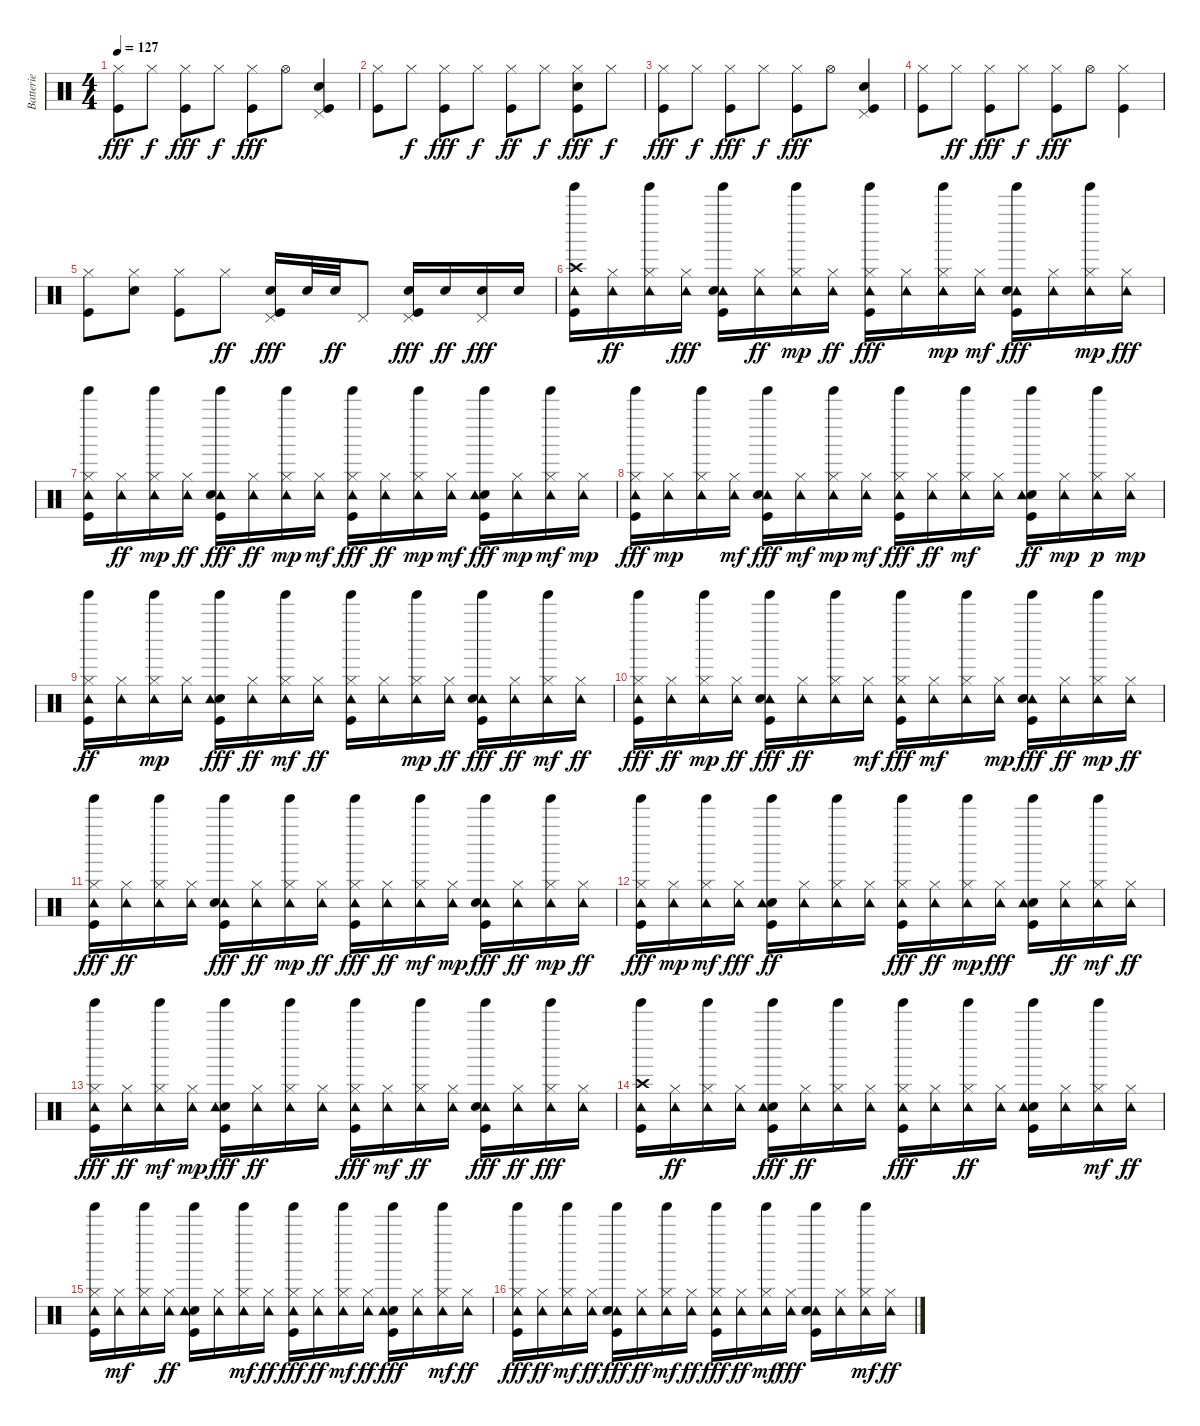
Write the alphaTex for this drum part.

\track ("Batterie" "Batterie") {instrument percussion}
\staff {score}
\articulation defaults
\ts (4 4)
\tempo 127
\clef neutral
\ks c
("Hi-Hat (closed)" "Kick (hit)").8{dy fff} "Hi-Hat (closed)".8{dy f} ("Kick (hit)" "Hi-Hat (closed)").8{dy fff} "Hi-Hat (closed)".8{dy f} ("Hi-Hat (closed)" "Kick (hit)").8{dy fff} "Hi-Hat (open)".8 ("Snare (hit) 2" "Pedal Hi-Hat (hit)" "Kick (hit)").4 |
("Kick (hit)" "Hi-Hat (closed)").8 "Hi-Hat (closed)".8{dy f} ("Kick (hit)" "Hi-Hat (closed)").8{dy fff} "Hi-Hat (closed)".8{dy f} ("Kick (hit)" "Hi-Hat (closed)").8{dy ff} "Hi-Hat (closed)".8{dy f} ("Kick (hit)" "Snare (hit) 2" "Hi-Hat (closed)").8{dy fff} "Hi-Hat (closed)".8{dy f} |
("Kick (hit)" "Hi-Hat (closed)").8{dy fff} "Hi-Hat (closed)".8{dy f} ("Hi-Hat (closed)" "Kick (hit)").8{dy fff} "Hi-Hat (closed)".8{dy f} ("Hi-Hat (closed)" "Kick (hit)").8{dy fff} "Hi-Hat (open)".8 ("Kick (hit)" "Snare (hit) 2" "Pedal Hi-Hat (hit)").4 |
("Kick (hit)" "Hi-Hat (closed)").8 "Hi-Hat (closed)".8{dy ff} ("Kick (hit)" "Hi-Hat (closed)").8{dy fff} "Hi-Hat (closed)".8{dy f} ("Kick (hit)" "Hi-Hat (closed)").8{dy fff} "Hi-Hat (open)".8 ("Hi-Hat (closed)" "Kick (hit)").4 |
("Kick (hit)" "Hi-Hat (closed)").8 ("Snare (hit) 2" "Hi-Hat (closed)").8 ("Hi-Hat (closed)" "Kick (hit)").8 "Hi-Hat (closed)".8{dy ff} ("Pedal Hi-Hat (hit)" "Kick (hit)" "Snare (hit) 2").16{dy fff} "Snare (hit) 2".32 "Snare (hit) 2".32{dy ff} "Pedal Hi-Hat (hit)".8 ("Pedal Hi-Hat (hit)" "Kick (hit)" "Snare (hit) 2").16{dy fff} "Snare (hit) 2".16{dy ff} ("Snare (hit) 2" "Pedal Hi-Hat (hit)").16{dy fff} "Snare (hit) 2".16 |
("Crash high (hit)" "Tinkle Bell (hit)" "Tambourine (hit)" "Kick (hit)").16 ("Tambourine (hit)" "Hi-Hat (closed)").16{dy ff} ("Tinkle Bell (hit)" "Tambourine (hit)" "Hi-Hat (closed)").16 ("Tambourine (hit)" "Hi-Hat (closed)").16{dy fff} ("Tambourine (hit)" "Kick (hit)" "Snare (hit) 2" "Tinkle Bell (hit)").16 ("Tambourine (hit)" "Hi-Hat (closed)").16{dy ff} ("Hi-Hat (closed)" "Tambourine (hit)" "Tinkle Bell (hit)").16{dy mp} ("Tambourine (hit)" "Hi-Hat (closed)").16{dy ff} ("Kick (hit)" "Tambourine (hit)" "Tinkle Bell (hit)" "Hi-Hat (closed)").16{dy fff} ("Tambourine (hit)" "Hi-Hat (closed)").16 ("Hi-Hat (closed)" "Tambourine (hit)" "Tinkle Bell (hit)").16{dy mp} ("Hi-Hat (closed)" "Tambourine (hit)").16{dy mf} ("Tinkle Bell (hit)" "Tambourine (hit)" "Kick (hit)" "Snare (hit) 2").16{dy fff} ("Tambourine (hit)" "Hi-Hat (closed)").16 ("Hi-Hat (closed)" "Tambourine (hit)" "Tinkle Bell (hit)").16{dy mp} ("Tambourine (hit)" "Hi-Hat (closed)").16{dy fff} |
("Tambourine (hit)" "Kick (hit)" "Hi-Hat (closed)" "Tinkle Bell (hit)").16 ("Tambourine (hit)" "Hi-Hat (closed)").16{dy ff} ("Hi-Hat (closed)" "Tambourine (hit)" "Tinkle Bell (hit)").16{dy mp} ("Tambourine (hit)" "Hi-Hat (closed)").16{dy ff} ("Tambourine (hit)" "Tinkle Bell (hit)" "Kick (hit)" "Snare (hit) 2").16{dy fff} ("Tambourine (hit)" "Hi-Hat (closed)").16{dy ff} ("Tinkle Bell (hit)" "Hi-Hat (closed)" "Tambourine (hit)").16{dy mp} ("Hi-Hat (closed)" "Tambourine (hit)").16{dy mf} ("Tinkle Bell (hit)" "Tambourine (hit)" "Kick (hit)" "Hi-Hat (closed)").16{dy fff} ("Tambourine (hit)" "Hi-Hat (closed)").16{dy ff} ("Tinkle Bell (hit)" "Hi-Hat (closed)" "Tambourine (hit)").16{dy mp} ("Hi-Hat (closed)" "Tambourine (hit)").16{dy mf} ("Tinkle Bell (hit)" "Snare (hit) 2" "Kick (hit)" "Tambourine (hit)").16{dy fff} ("Hi-Hat (closed)" "Tambourine (hit)").16{dy mp} ("Hi-Hat (closed)" "Tinkle Bell (hit)" "Tambourine (hit)").16{dy mf} ("Hi-Hat (closed)" "Tambourine (hit)").16{dy mp} |
("Hi-Hat (closed)" "Tinkle Bell (hit)" "Tambourine (hit)" "Kick (hit)").16{dy fff} ("Tambourine (hit)" "Hi-Hat (closed)").16{dy mp} ("Hi-Hat (closed)" "Tinkle Bell (hit)" "Tambourine (hit)").16 ("Hi-Hat (closed)" "Tambourine (hit)").16{dy mf} ("Tinkle Bell (hit)" "Kick (hit)" "Tambourine (hit)" "Snare (hit) 2").16{dy fff} ("Hi-Hat (closed)" "Tambourine (hit)").16{dy mf} ("Tinkle Bell (hit)" "Tambourine (hit)" "Hi-Hat (closed)").16{dy mp} ("Hi-Hat (closed)" "Tambourine (hit)").16{dy mf} ("Tinkle Bell (hit)" "Kick (hit)" "Hi-Hat (closed)" "Tambourine (hit)").16{dy fff} ("Tambourine (hit)" "Hi-Hat (closed)").16{dy ff} ("Tinkle Bell (hit)" "Hi-Hat (closed)" "Tambourine (hit)").16{dy mf} ("Hi-Hat (closed)" "Tambourine (hit)").16 ("Tinkle Bell (hit)" "Kick (hit)" "Snare (hit) 2" "Tambourine (hit)").16{dy ff} ("Hi-Hat (closed)" "Tambourine (hit)").16{dy mp} ("Tinkle Bell (hit)" "Hi-Hat (closed)" "Tambourine (hit)").16{dy p} ("Hi-Hat (closed)" "Tambourine (hit)").16{dy mp} |
("Kick (hit)" "Hi-Hat (closed)" "Tambourine (hit)" "Tinkle Bell (hit)").16{dy ff} ("Tambourine (hit)" "Hi-Hat (closed)").16 ("Hi-Hat (closed)" "Tambourine (hit)" "Tinkle Bell (hit)").16{dy mp} ("Hi-Hat (closed)" "Tambourine (hit)").16 ("Tinkle Bell (hit)" "Snare (hit) 2" "Tambourine (hit)" "Kick (hit)").16{dy fff} ("Tambourine (hit)" "Hi-Hat (closed)").16{dy ff} ("Tinkle Bell (hit)" "Tambourine (hit)" "Hi-Hat (closed)").16{dy mf} ("Tambourine (hit)" "Hi-Hat (closed)").16{dy ff} ("Tinkle Bell (hit)" "Hi-Hat (closed)" "Kick (hit)" "Tambourine (hit)").16 ("Tambourine (hit)" "Hi-Hat (closed)").16 ("Tinkle Bell (hit)" "Hi-Hat (closed)" "Tambourine (hit)").16{dy mp} ("Tambourine (hit)" "Hi-Hat (closed)").16{dy ff} ("Tinkle Bell (hit)" "Tambourine (hit)" "Kick (hit)" "Snare (hit) 2").16{dy fff} ("Tambourine (hit)" "Hi-Hat (closed)").16{dy ff} ("Tinkle Bell (hit)" "Tambourine (hit)" "Hi-Hat (closed)").16{dy mf} ("Tambourine (hit)" "Hi-Hat (closed)").16{dy ff} |
("Tinkle Bell (hit)" "Hi-Hat (closed)" "Tambourine (hit)" "Kick (hit)").16{dy fff} ("Tambourine (hit)" "Hi-Hat (closed)").16{dy ff} ("Tambourine (hit)" "Tinkle Bell (hit)" "Hi-Hat (closed)").16{dy mp} ("Tambourine (hit)" "Hi-Hat (closed)").16{dy ff} ("Tinkle Bell (hit)" "Kick (hit)" "Tambourine (hit)" "Snare (hit) 2").16{dy fff} ("Tambourine (hit)" "Hi-Hat (closed)").16{dy ff} ("Tinkle Bell (hit)" "Tambourine (hit)" "Hi-Hat (closed)").16 ("Tambourine (hit)" "Hi-Hat (closed)").16{dy mf} ("Tinkle Bell (hit)" "Hi-Hat (closed)" "Tambourine (hit)" "Kick (hit)").16{dy fff} ("Tambourine (hit)" "Hi-Hat (closed)").16{dy mf} ("Tinkle Bell (hit)" "Hi-Hat (closed)" "Tambourine (hit)").16 ("Tambourine (hit)" "Hi-Hat (closed)").16{dy mp} ("Tinkle Bell (hit)" "Kick (hit)" "Tambourine (hit)" "Snare (hit) 2").16{dy fff} ("Tambourine (hit)" "Hi-Hat (closed)").16{dy ff} ("Tinkle Bell (hit)" "Tambourine (hit)" "Hi-Hat (closed)").16{dy mp} ("Tambourine (hit)" "Hi-Hat (closed)").16{dy ff} |
("Tinkle Bell (hit)" "Kick (hit)" "Tambourine (hit)" "Hi-Hat (closed)").16{dy fff} ("Tambourine (hit)" "Hi-Hat (closed)").16{dy ff} ("Tinkle Bell (hit)" "Tambourine (hit)" "Hi-Hat (closed)").16 ("Tambourine (hit)" "Hi-Hat (closed)").16 ("Tinkle Bell (hit)" "Kick (hit)" "Tambourine (hit)" "Snare (hit) 2").16{dy fff} ("Tambourine (hit)" "Hi-Hat (closed)").16{dy ff} ("Tinkle Bell (hit)" "Hi-Hat (closed)" "Tambourine (hit)").16{dy mp} ("Tambourine (hit)" "Hi-Hat (closed)").16{dy ff} ("Hi-Hat (closed)" "Tambourine (hit)" "Tinkle Bell (hit)" "Kick (hit)").16{dy fff} ("Tambourine (hit)" "Hi-Hat (closed)").16{dy ff} ("Hi-Hat (closed)" "Tambourine (hit)" "Tinkle Bell (hit)").16{dy mf} ("Hi-Hat (closed)" "Tambourine (hit)").16{dy mp} ("Tambourine (hit)" "Tinkle Bell (hit)" "Kick (hit)" "Snare (hit) 2").16{dy fff} ("Tambourine (hit)" "Hi-Hat (closed)").16{dy ff} ("Tinkle Bell (hit)" "Tambourine (hit)" "Hi-Hat (closed)").16{dy mp} ("Tambourine (hit)" "Hi-Hat (closed)").16{dy ff} |
("Tambourine (hit)" "Tinkle Bell (hit)" "Kick (hit)" "Hi-Hat (closed)").16{dy fff} ("Tambourine (hit)" "Hi-Hat (closed)").16{dy mp} ("Tinkle Bell (hit)" "Hi-Hat (closed)" "Tambourine (hit)").16{dy mf} ("Tambourine (hit)" "Hi-Hat (closed)").16{dy fff} ("Tinkle Bell (hit)" "Kick (hit)" "Snare (hit) 2" "Tambourine (hit)").16{dy ff} ("Tambourine (hit)" "Hi-Hat (closed)").16 ("Tinkle Bell (hit)" "Tambourine (hit)" "Hi-Hat (closed)").16 ("Tambourine (hit)" "Hi-Hat (closed)").16 ("Tinkle Bell (hit)" "Tambourine (hit)" "Kick (hit)" "Hi-Hat (closed)").16{dy fff} ("Tambourine (hit)" "Hi-Hat (closed)").16{dy ff} ("Tinkle Bell (hit)" "Tambourine (hit)" "Hi-Hat (closed)").16{dy mp} ("Tambourine (hit)" "Hi-Hat (closed)").16{dy fff} ("Snare (hit) 2" "Tinkle Bell (hit)" "Tambourine (hit)" "Kick (hit)").16 ("Tambourine (hit)" "Hi-Hat (closed)").16{dy ff} ("Tambourine (hit)" "Tinkle Bell (hit)" "Hi-Hat (closed)").16{dy mf} ("Tambourine (hit)" "Hi-Hat (closed)").16{dy ff} |
("Tinkle Bell (hit)" "Hi-Hat (closed)" "Tambourine (hit)" "Kick (hit)").16{dy fff} ("Tambourine (hit)" "Hi-Hat (closed)").16{dy ff} ("Tambourine (hit)" "Tinkle Bell (hit)" "Hi-Hat (closed)").16{dy mf} ("Hi-Hat (closed)" "Tambourine (hit)").16{dy mp} ("Snare (hit) 2" "Tambourine (hit)" "Tinkle Bell (hit)" "Kick (hit)").16{dy fff} ("Tambourine (hit)" "Hi-Hat (closed)").16{dy ff} ("Tinkle Bell (hit)" "Tambourine (hit)" "Hi-Hat (closed)").16 ("Tambourine (hit)" "Hi-Hat (closed)").16 ("Tinkle Bell (hit)" "Hi-Hat (closed)" "Tambourine (hit)" "Kick (hit)").16{dy fff} ("Tambourine (hit)" "Hi-Hat (closed)").16{dy mf} ("Tambourine (hit)" "Tinkle Bell (hit)" "Hi-Hat (closed)").16{dy ff} ("Tambourine (hit)" "Hi-Hat (closed)").16 ("Tinkle Bell (hit)" "Tambourine (hit)" "Kick (hit)" "Snare (hit) 2").16{dy fff} ("Tambourine (hit)" "Hi-Hat (closed)").16{dy ff} ("Tinkle Bell (hit)" "Tambourine (hit)" "Hi-Hat (closed)").16{dy fff} ("Tambourine (hit)" "Hi-Hat (closed)").16 |
("Crash high (hit)" "Tinkle Bell (hit)" "Tambourine (hit)" "Kick (hit)").16 ("Tambourine (hit)" "Hi-Hat (closed)").16{dy ff} ("Tambourine (hit)" "Tinkle Bell (hit)" "Hi-Hat (closed)").16 ("Tambourine (hit)" "Hi-Hat (closed)").16 ("Tinkle Bell (hit)" "Snare (hit) 2" "Tambourine (hit)" "Kick (hit)").16{dy fff} ("Tambourine (hit)" "Hi-Hat (closed)").16{dy ff} ("Tambourine (hit)" "Tinkle Bell (hit)" "Hi-Hat (closed)").16 ("Tambourine (hit)" "Hi-Hat (closed)").16 ("Tambourine (hit)" "Tinkle Bell (hit)" "Kick (hit)" "Hi-Hat (closed)").16{dy fff} ("Tambourine (hit)" "Hi-Hat (closed)").16 ("Tinkle Bell (hit)" "Tambourine (hit)" "Hi-Hat (closed)").16{dy ff} ("Tambourine (hit)" "Hi-Hat (closed)").16 ("Tinkle Bell (hit)" "Kick (hit)" "Snare (hit) 2" "Tambourine (hit)").16 ("Tambourine (hit)" "Hi-Hat (closed)").16 ("Tinkle Bell (hit)" "Tambourine (hit)" "Hi-Hat (closed)").16{dy mf} ("Tambourine (hit)" "Hi-Hat (closed)").16{dy ff} |
("Tinkle Bell (hit)" "Kick (hit)" "Hi-Hat (closed)" "Tambourine (hit)").16 ("Tambourine (hit)" "Hi-Hat (closed)").16{dy mf} ("Hi-Hat (closed)" "Tinkle Bell (hit)" "Tambourine (hit)").16 ("Tambourine (hit)" "Hi-Hat (closed)").16{dy ff} ("Tinkle Bell (hit)" "Kick (hit)" "Snare (hit) 2" "Tambourine (hit)").16 ("Tambourine (hit)" "Hi-Hat (closed)").16 ("Tinkle Bell (hit)" "Tambourine (hit)" "Hi-Hat (closed)").16{dy mf} ("Tambourine (hit)" "Hi-Hat (closed)").16{dy ff} ("Tinkle Bell (hit)" "Hi-Hat (closed)" "Kick (hit)" "Tambourine (hit)").16{dy fff} ("Tambourine (hit)" "Hi-Hat (closed)").16{dy ff} ("Hi-Hat (closed)" "Tinkle Bell (hit)" "Tambourine (hit)").16{dy mf} ("Tambourine (hit)" "Hi-Hat (closed)").16{dy ff} ("Tinkle Bell (hit)" "Snare (hit) 2" "Tambourine (hit)" "Kick (hit)").16{dy fff} ("Tambourine (hit)" "Hi-Hat (closed)").16 ("Tinkle Bell (hit)" "Hi-Hat (closed)" "Tambourine (hit)").16{dy mf} ("Tambourine (hit)" "Hi-Hat (closed)").16{dy ff} |
("Hi-Hat (closed)" "Tambourine (hit)" "Tinkle Bell (hit)" "Kick (hit)").16{dy fff} ("Tambourine (hit)" "Hi-Hat (closed)").16{dy ff} ("Hi-Hat (closed)" "Tambourine (hit)" "Tinkle Bell (hit)").16{dy mf} ("Tambourine (hit)" "Hi-Hat (closed)").16{dy ff} ("Tambourine (hit)" "Kick (hit)" "Snare (hit) 2" "Tinkle Bell (hit)").16{dy fff} ("Tambourine (hit)" "Hi-Hat (closed)").16{dy ff} ("Tinkle Bell (hit)" "Tambourine (hit)" "Hi-Hat (closed)").16{dy mf} ("Tambourine (hit)" "Hi-Hat (closed)").16{dy ff} ("Tinkle Bell (hit)" "Hi-Hat (closed)" "Tambourine (hit)" "Kick (hit)").16{dy fff} ("Tambourine (hit)" "Hi-Hat (closed)").16{dy ff} ("Hi-Hat (closed)" "Tinkle Bell (hit)" "Tambourine (hit)").16{dy mf} ("Tambourine (hit)" "Hi-Hat (closed)").16{dy fff} ("Tinkle Bell (hit)" "Tambourine (hit)" "Kick (hit)" "Snare (hit) 2").16 ("Tambourine (hit)" "Hi-Hat (closed)").16 ("Tambourine (hit)" "Tinkle Bell (hit)" "Hi-Hat (closed)").16{dy mf} ("Tambourine (hit)" "Hi-Hat (closed)").16{dy ff}
